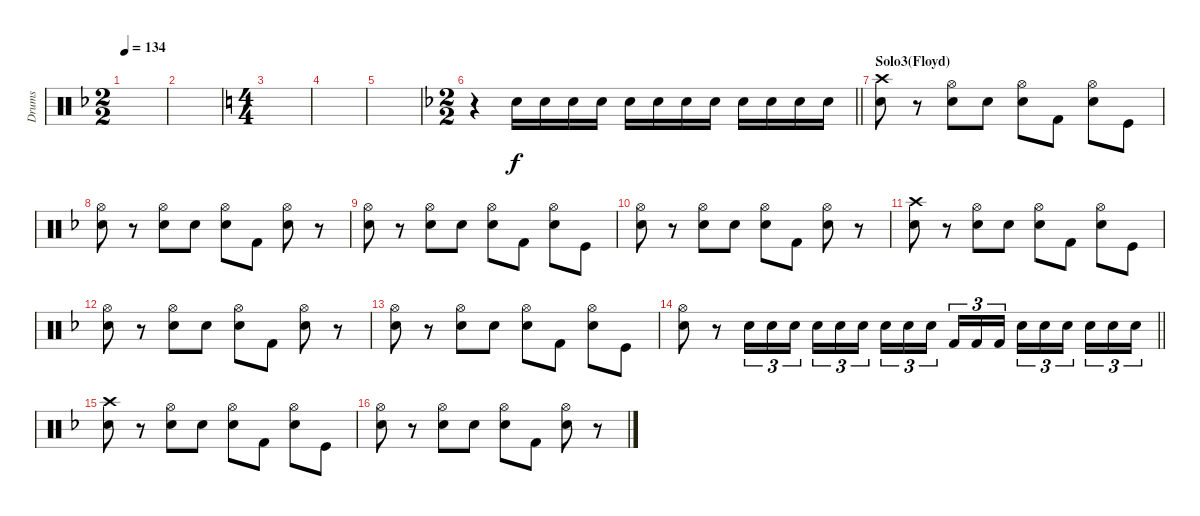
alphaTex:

\track ("Drums" "Drums") {instrument percussion}
\staff {score}
\articulation defaults
\ts (2 2)
\tempo 134
\clef neutral
\ks f
|
|
\ts (4 4)
\ks c
|
|
|
\ts (2 2)
\barLineRight lightlight
\ks f
r.4 "Electric Snare (hit)".16 "Electric Snare (hit)".16 "Electric Snare (hit)".16 "Electric Snare (hit)".16 "Electric Snare (hit)".16 "Electric Snare (hit)".16 "Snare (hit) 2".16 "Snare (hit) 2".16 "Snare (hit) 2".16 "Snare (hit) 2".16 "Snare (hit) 2".16 "Snare (hit) 2".16 |
\section ("" "Solo3(Floyd)")
("Snare (hit) 2" "Crash high (hit)").8 r.8 ("Snare (hit) 2" "Hi-Hat (open)").8 "Electric Snare (hit)".8 ("Snare (hit) 2" "Hi-Hat (open)").8 "Kick (hit) 2".8 ("Snare (hit) 2" "Hi-Hat (open)").8 "Kick (hit)".8 |
("Snare (hit) 2" "Hi-Hat (open)").8 r.8 ("Snare (hit) 2" "Hi-Hat (open)").8 "Electric Snare (hit)".8 ("Snare (hit) 2" "Hi-Hat (open)").8 "Kick (hit) 2".8 ("Snare (hit) 2" "Hi-Hat (open)").8 r.8 |
("Snare (hit) 2" "Hi-Hat (open)").8 r.8 ("Snare (hit) 2" "Hi-Hat (open)").8 "Electric Snare (hit)".8 ("Snare (hit) 2" "Hi-Hat (open)").8 "Kick (hit) 2".8 ("Snare (hit) 2" "Hi-Hat (open)").8 "Kick (hit)".8 |
("Snare (hit) 2" "Hi-Hat (open)").8 r.8 ("Snare (hit) 2" "Hi-Hat (open)").8 "Electric Snare (hit)".8 ("Snare (hit) 2" "Hi-Hat (open)").8 "Kick (hit) 2".8 ("Snare (hit) 2" "Hi-Hat (open)").8 r.8 |
("Snare (hit) 2" "Crash high (hit)").8 r.8 ("Snare (hit) 2" "Hi-Hat (open)").8 "Electric Snare (hit)".8 ("Snare (hit) 2" "Hi-Hat (open)").8 "Kick (hit) 2".8 ("Snare (hit) 2" "Hi-Hat (open)").8 "Kick (hit)".8 |
("Snare (hit) 2" "Hi-Hat (open)").8 r.8 ("Snare (hit) 2" "Hi-Hat (open)").8 "Electric Snare (hit)".8 ("Snare (hit) 2" "Hi-Hat (open)").8 "Kick (hit) 2".8 ("Snare (hit) 2" "Hi-Hat (open)").8 r.8 |
("Snare (hit) 2" "Hi-Hat (open)").8 r.8 ("Snare (hit) 2" "Hi-Hat (open)").8 "Electric Snare (hit)".8 ("Snare (hit) 2" "Hi-Hat (open)").8 "Kick (hit) 2".8 ("Snare (hit) 2" "Hi-Hat (open)").8 "Kick (hit)".8 |
\barLineRight lightlight
("Snare (hit) 2" "Hi-Hat (open)").8 r.8 "Snare (hit) 2".16{tu (3 2)} "Snare (hit) 2".16{tu (3 2)} "Snare (hit) 2".16{tu (3 2) beam splitsecondary} "Electric Snare (hit)".16{tu (3 2)} "Electric Snare (hit)".16{tu (3 2)} "Electric Snare (hit)".16{tu (3 2)} "Snare (hit) 2".16{tu (3 2)} "Snare (hit) 2".16{tu (3 2)} "Snare (hit) 2".16{tu (3 2) beam splitsecondary} "Kick (hit) 2".16{tu (3 2)} "Kick (hit) 2".16{tu (3 2)} "Kick (hit) 2".16{tu (3 2) beam splitsecondary} "Electric Snare (hit)".16{tu (3 2)} "Electric Snare (hit)".16{tu (3 2)} "Electric Snare (hit)".16{tu (3 2) beam splitsecondary} "Snare (hit) 2".16{tu (3 2)} "Snare (hit) 2".16{tu (3 2)} "Snare (hit) 2".16{tu (3 2)} |
("Snare (hit) 2" "Crash high (hit)").8 r.8 ("Snare (hit) 2" "Hi-Hat (open)").8 "Electric Snare (hit)".8 ("Snare (hit) 2" "Hi-Hat (open)").8 "Kick (hit) 2".8 ("Snare (hit) 2" "Hi-Hat (open)").8 "Kick (hit)".8 |
("Snare (hit) 2" "Hi-Hat (open)").8 r.8 ("Snare (hit) 2" "Hi-Hat (open)").8 "Electric Snare (hit)".8 ("Snare (hit) 2" "Hi-Hat (open)").8 "Kick (hit) 2".8 ("Snare (hit) 2" "Hi-Hat (open)").8 r.8
